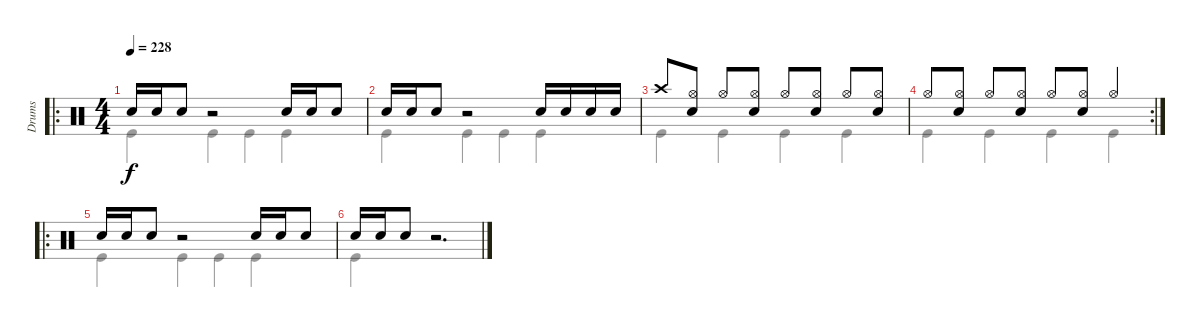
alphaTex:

\track ("Drums" "Drums") {instrument percussion}
\staff {score}
\articulation defaults
\voice
\ro
\ts (4 4)
\tempo 228
\clef neutral
\ks c "Snare (hit) 2".16{dy f} "Snare (hit) 2".16 "Snare (hit) 2".8
r.2 "Snare (hit) 2".16 "Snare (hit) 2".16 "Snare (hit) 2".8 |
"Snare (hit) 2".16 "Snare (hit) 2".16 "Snare (hit) 2".8 r.2 "Snare (hit) 2".16 "Snare (hit) 2".16 "Snare (hit) 2".16 "Snare (hit) 2".16 |
"Crash high (hit)".8 ("Hi-Hat (open)" "Snare (hit) 2").8 "Hi-Hat (open)".8 ("Hi-Hat (open)" "Snare (hit) 2").8 "Hi-Hat (open)".8 ("Hi-Hat (open)" "Snare (hit) 2").8 "Hi-Hat (open)".8 ("Hi-Hat (open)" "Snare (hit) 2").8 |
\rc 2 "Hi-Hat (open)".8
("Hi-Hat (open)" "Snare (hit) 2").8 "Hi-Hat (open)".8 ("Hi-Hat (open)" "Snare (hit) 2").8 "Hi-Hat (open)".8 ("Hi-Hat (open)" "Snare (hit) 2").8 "Hi-Hat (open)".4 |
\ro "Snare (hit) 2".16 "Snare (hit) 2".16 "Snare (hit) 2".8
r.2 "Snare (hit) 2".16 "Snare (hit) 2".16 "Snare (hit) 2".8 |
"Snare (hit) 2".16 "Snare (hit) 2".16 "Snare (hit) 2".8 r.2{d}
\voice
\clef neutral
\ottava regular
\simile none
\ks c "Kick (hit)".4{dy f} "Kick (hit)".4 "Kick (hit)".4 "Kick (hit)".4
|
"Kick (hit)".4 "Kick (hit)".4 "Kick (hit)".4 "Kick (hit)".4 |
"Kick (hit)".4 "Kick (hit)".4 "Kick (hit)".4 "Kick (hit)".4 |
"Kick (hit)".4 "Kick (hit)".4 "Kick (hit)".4 "Kick (hit)".4 |
"Kick (hit)".4 "Kick (hit)".4 "Kick (hit)".4 "Kick (hit)".4 |
"Kick (hit)".4 r.2{d}
